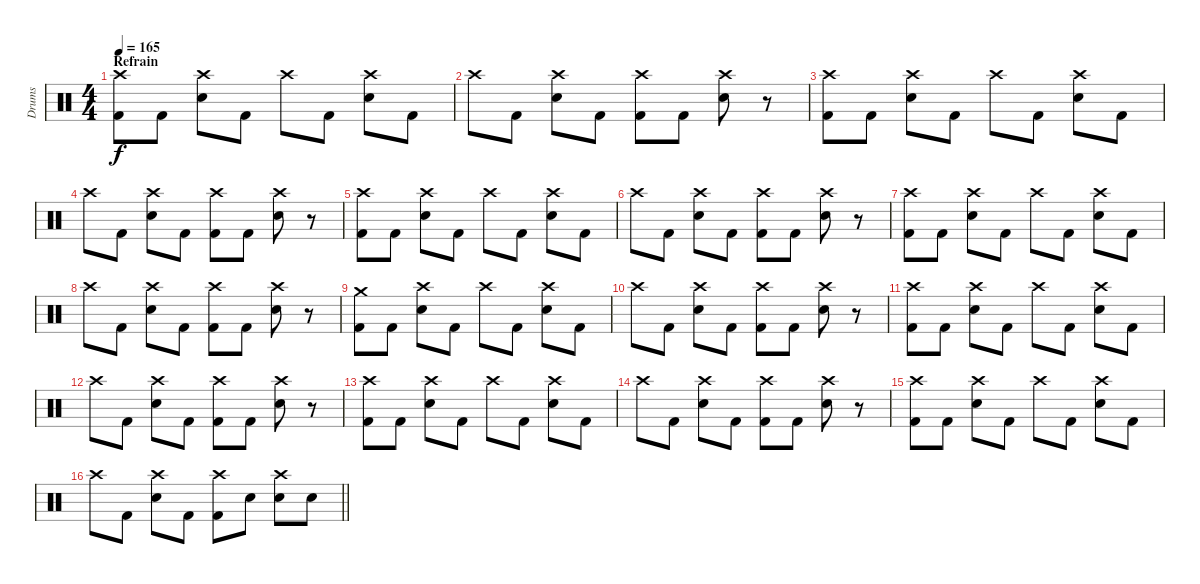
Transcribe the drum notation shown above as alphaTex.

\track ("Drums" "Drums") {instrument percussion}
\staff {score}
\articulation defaults
\ts (4 4)
\section ("" "Refrain")
\tempo 165
\clef neutral
\ks c
("Crash high (hit)" "Kick (hit) 2").8{dy f} "Kick (hit) 2".8 ("Crash high (hit)" "Electric Snare (hit)").8 "Kick (hit) 2".8 "Crash high (hit)".8 "Kick (hit) 2".8 ("Crash high (hit)" "Electric Snare (hit)").8 "Kick (hit) 2".8 |
"Crash high (hit)".8 "Kick (hit) 2".8 ("Crash high (hit)" "Electric Snare (hit)").8 "Kick (hit) 2".8 ("Crash high (hit)" "Kick (hit) 2").8 "Kick (hit) 2".8 ("Crash high (hit)" "Electric Snare (hit)").8 r.8 |
("Crash high (hit)" "Kick (hit) 2").8 "Kick (hit) 2".8 ("Crash high (hit)" "Electric Snare (hit)").8 "Kick (hit) 2".8 "Crash high (hit)".8 "Kick (hit) 2".8 ("Crash high (hit)" "Electric Snare (hit)").8 "Kick (hit) 2".8 |
"Crash high (hit)".8 "Kick (hit) 2".8 ("Crash high (hit)" "Electric Snare (hit)").8 "Kick (hit) 2".8 ("Crash high (hit)" "Kick (hit) 2").8 "Kick (hit) 2".8 ("Crash high (hit)" "Electric Snare (hit)").8 r.8 |
("Crash high (hit)" "Kick (hit) 2").8 "Kick (hit) 2".8 ("Crash high (hit)" "Electric Snare (hit)").8 "Kick (hit) 2".8 "Crash high (hit)".8 "Kick (hit) 2".8 ("Crash high (hit)" "Electric Snare (hit)").8 "Kick (hit) 2".8 |
"Crash high (hit)".8 "Kick (hit) 2".8 ("Crash high (hit)" "Electric Snare (hit)").8 "Kick (hit) 2".8 ("Crash high (hit)" "Kick (hit) 2").8 "Kick (hit) 2".8 ("Crash high (hit)" "Electric Snare (hit)").8 r.8 |
("Crash high (hit)" "Kick (hit) 2").8 "Kick (hit) 2".8 ("Crash high (hit)" "Electric Snare (hit)").8 "Kick (hit) 2".8 "Crash high (hit)".8 "Kick (hit) 2".8 ("Crash high (hit)" "Electric Snare (hit)").8 "Kick (hit) 2".8 |
"Crash high (hit)".8 "Kick (hit) 2".8 ("Crash high (hit)" "Electric Snare (hit)").8 "Kick (hit) 2".8 ("Crash high (hit)" "Kick (hit) 2").8 "Kick (hit) 2".8 ("Crash high (hit)" "Electric Snare (hit)").8 r.8 |
("Crash medium (hit)" "Kick (hit) 2").8 "Kick (hit) 2".8 ("Crash high (hit)" "Electric Snare (hit)").8 "Kick (hit) 2".8 "Crash high (hit)".8 "Kick (hit) 2".8 ("Crash high (hit)" "Electric Snare (hit)").8 "Kick (hit) 2".8 |
"Crash high (hit)".8 "Kick (hit) 2".8 ("Crash high (hit)" "Electric Snare (hit)").8 "Kick (hit) 2".8 ("Crash high (hit)" "Kick (hit) 2").8 "Kick (hit) 2".8 ("Crash high (hit)" "Electric Snare (hit)").8 r.8 |
("Crash high (hit)" "Kick (hit) 2").8 "Kick (hit) 2".8 ("Crash high (hit)" "Electric Snare (hit)").8 "Kick (hit) 2".8 "Crash high (hit)".8 "Kick (hit) 2".8 ("Crash high (hit)" "Electric Snare (hit)").8 "Kick (hit) 2".8 |
"Crash high (hit)".8 "Kick (hit) 2".8 ("Crash high (hit)" "Electric Snare (hit)").8 "Kick (hit) 2".8 ("Crash high (hit)" "Kick (hit) 2").8 "Kick (hit) 2".8 ("Crash high (hit)" "Electric Snare (hit)").8 r.8 |
("Crash high (hit)" "Kick (hit) 2").8 "Kick (hit) 2".8 ("Crash high (hit)" "Electric Snare (hit)").8 "Kick (hit) 2".8 "Crash high (hit)".8 "Kick (hit) 2".8 ("Crash high (hit)" "Electric Snare (hit)").8 "Kick (hit) 2".8 |
"Crash high (hit)".8 "Kick (hit) 2".8 ("Crash high (hit)" "Electric Snare (hit)").8 "Kick (hit) 2".8 ("Crash high (hit)" "Kick (hit) 2").8 "Kick (hit) 2".8 ("Crash high (hit)" "Electric Snare (hit)").8 r.8 |
("Crash high (hit)" "Kick (hit) 2").8 "Kick (hit) 2".8 ("Crash high (hit)" "Electric Snare (hit)").8 "Kick (hit) 2".8 "Crash high (hit)".8 "Kick (hit) 2".8 ("Crash high (hit)" "Electric Snare (hit)").8 "Kick (hit) 2".8 |
\barLineRight lightlight "Crash high (hit)".8 "Kick (hit) 2".8
("Crash high (hit)" "Electric Snare (hit)").8 "Kick (hit) 2".8 ("Crash high (hit)" "Kick (hit) 2").8 "Electric Snare (hit)".8 ("Crash high (hit)" "Electric Snare (hit)").8 "Electric Snare (hit)".8
